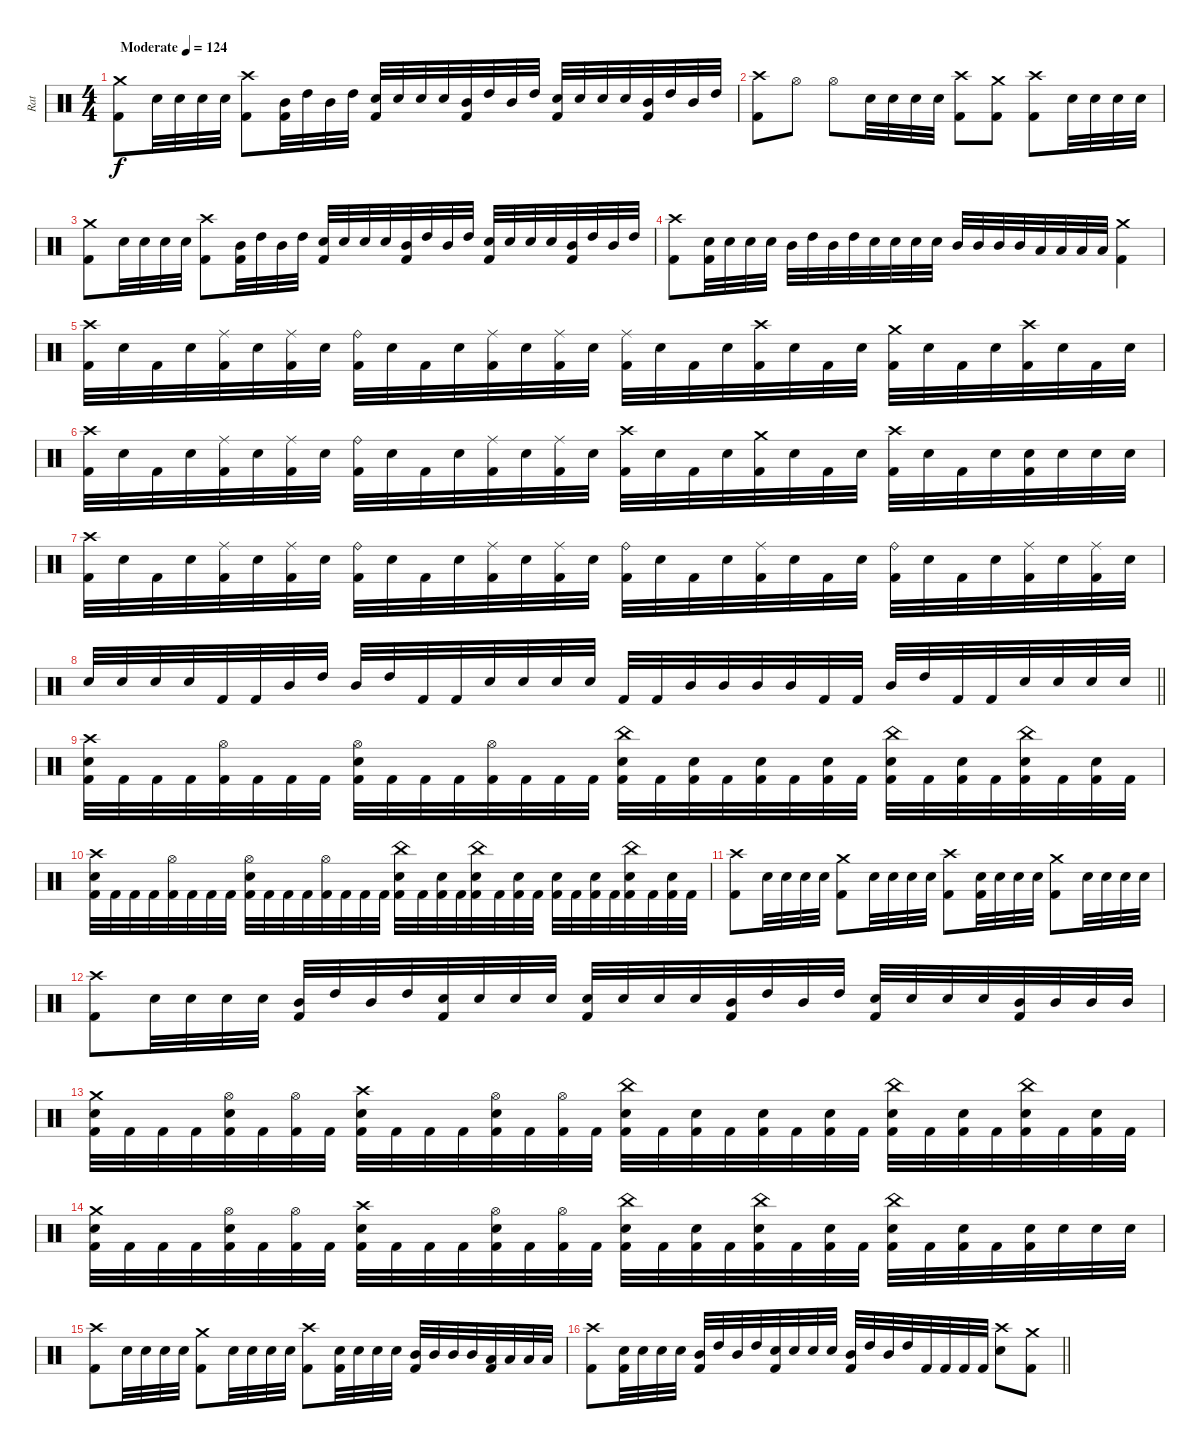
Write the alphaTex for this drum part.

\track ("Rat" "Rat") {instrument percussion}
\staff {score}
\articulation defaults
\ts (4 4)
\tempo (124 "Moderate")
\clef neutral
\ks c
("Crash medium (hit)" "Kick (hit) 2").8{dy f} "Electric Snare (hit)".32 "Electric Snare (hit)".32 "Electric Snare (hit)".32 "Electric Snare (hit)".32 ("Crash high (hit)" "Kick (hit) 2").8 ("Mid Tom (hit)" "Kick (hit) 2").32 "High Tom (hit)".32 "Mid Tom (hit)".32 "High Tom (hit)".32 ("Electric Snare (hit)" "Kick (hit) 2").32 "Electric Snare (hit)".32 "Electric Snare (hit)".32 "Electric Snare (hit)".32 ("Mid Tom (hit)" "Kick (hit) 2").32 "High Tom (hit)".32 "Mid Tom (hit)".32 "High Tom (hit)".32 ("Electric Snare (hit)" "Kick (hit) 2").32 "Electric Snare (hit)".32 "Electric Snare (hit)".32 "Electric Snare (hit)".32 ("Mid Tom (hit)" "Kick (hit) 2").32 "High Tom (hit)".32 "Mid Tom (hit)".32 "High Tom (hit)".32 |
("Crash high (hit)" "Kick (hit) 2").8 "Hi-Hat (open)".8 "Hi-Hat (open)".8 "Electric Snare (hit)".32 "Electric Snare (hit)".32 "Electric Snare (hit)".32 "Electric Snare (hit)".32 ("Crash high (hit)" "Kick (hit) 2").8 ("Crash medium (hit)" "Kick (hit) 2").8 ("Crash high (hit)" "Kick (hit) 2").8 "Electric Snare (hit)".32 "Electric Snare (hit)".32 "Electric Snare (hit)".32 "Electric Snare (hit)".32 |
("Crash medium (hit)" "Kick (hit) 2").8 "Electric Snare (hit)".32 "Electric Snare (hit)".32 "Electric Snare (hit)".32 "Electric Snare (hit)".32 ("Crash high (hit)" "Kick (hit) 2").8 ("Mid Tom (hit)" "Kick (hit) 2").32 "High Tom (hit)".32 "Mid Tom (hit)".32 "High Tom (hit)".32 ("Electric Snare (hit)" "Kick (hit) 2").32 "Electric Snare (hit)".32 "Electric Snare (hit)".32 "Electric Snare (hit)".32 ("Mid Tom (hit)" "Kick (hit) 2").32 "High Tom (hit)".32 "Mid Tom (hit)".32 "High Tom (hit)".32 ("Electric Snare (hit)" "Kick (hit) 2").32 "Electric Snare (hit)".32 "Electric Snare (hit)".32 "Electric Snare (hit)".32 ("Mid Tom (hit)" "Kick (hit) 2").32 "High Tom (hit)".32 "Mid Tom (hit)".32 "High Tom (hit)".32 |
("Crash high (hit)" "Kick (hit) 2").8 ("Electric Snare (hit)" "Kick (hit) 2").32 "Electric Snare (hit)".32 "Electric Snare (hit)".32 "Electric Snare (hit)".32 "Mid Tom (hit)".32 "High Tom (hit)".32 "Mid Tom (hit)".32 "High Tom (hit)".32 "Electric Snare (hit)".32 "Electric Snare (hit)".32 "Electric Snare (hit)".32 "Electric Snare (hit)".32 "Mid Tom (hit)".32 "Mid Tom (hit)".32 "Mid Tom (hit)".32 "Mid Tom (hit)".32 "Low Tom (hit)".32 "Low Tom (hit)".32 "Low Tom (hit)".32 "Low Tom (hit)".32 ("Crash medium (hit)" "Kick (hit) 2").4 |
("Crash high (hit)" "Kick (hit) 2").32 "Electric Snare (hit)".32 "Kick (hit) 2".32 "Electric Snare (hit)".32 ("Ride (middle)" "Kick (hit) 2").32 "Electric Snare (hit)".32 ("Ride (middle)" "Kick (hit) 2").32 "Electric Snare (hit)".32 ("Ride (bell)" "Kick (hit) 2").32 "Electric Snare (hit)".32 "Kick (hit) 2".32 "Electric Snare (hit)".32 ("Ride (middle)" "Kick (hit) 2").32 "Electric Snare (hit)".32 ("Ride (middle)" "Kick (hit) 2").32 "Electric Snare (hit)".32 ("Ride (middle)" "Kick (hit) 2").32 "Electric Snare (hit)".32 "Kick (hit) 2".32 "Electric Snare (hit)".32 ("Crash high (hit)" "Kick (hit) 2").32 "Electric Snare (hit)".32 "Kick (hit) 2".32 "Electric Snare (hit)".32 ("Crash medium (hit)" "Kick (hit) 2").32 "Electric Snare (hit)".32 "Kick (hit) 2".32 "Electric Snare (hit)".32 ("Crash high (hit)" "Kick (hit) 2").32 "Electric Snare (hit)".32 "Kick (hit) 2".32 "Electric Snare (hit)".32 |
("Crash high (hit)" "Kick (hit) 2").32 "Electric Snare (hit)".32 "Kick (hit) 2".32 "Electric Snare (hit)".32 ("Ride (middle)" "Kick (hit) 2").32 "Electric Snare (hit)".32 ("Ride (middle)" "Kick (hit) 2").32 "Electric Snare (hit)".32 ("Ride (bell)" "Kick (hit) 2").32 "Electric Snare (hit)".32 "Kick (hit) 2".32 "Electric Snare (hit)".32 ("Ride (middle)" "Kick (hit) 2").32 "Electric Snare (hit)".32 ("Ride (middle)" "Kick (hit) 2").32 "Electric Snare (hit)".32 ("Crash high (hit)" "Kick (hit) 2").32 "Electric Snare (hit)".32 "Kick (hit) 2".32 "Electric Snare (hit)".32 ("Crash medium (hit)" "Kick (hit) 2").32 "Electric Snare (hit)".32 "Kick (hit) 2".32 "Electric Snare (hit)".32 ("Crash high (hit)" "Kick (hit) 2").32 "Electric Snare (hit)".32 "Kick (hit) 2".32 "Electric Snare (hit)".32 ("Electric Snare (hit)" "Kick (hit) 2").32 "Electric Snare (hit)".32 "Electric Snare (hit)".32 "Electric Snare (hit)".32 |
("Crash high (hit)" "Kick (hit) 2").32 "Electric Snare (hit)".32 "Kick (hit) 2".32 "Electric Snare (hit)".32 ("Ride (middle)" "Kick (hit) 2").32 "Electric Snare (hit)".32 ("Ride (middle)" "Kick (hit) 2").32 "Electric Snare (hit)".32 ("Ride (bell)" "Kick (hit) 2").32 "Electric Snare (hit)".32 "Kick (hit) 2".32 "Electric Snare (hit)".32 ("Ride (middle)" "Kick (hit) 2").32 "Electric Snare (hit)".32 ("Ride (middle)" "Kick (hit) 2").32 "Electric Snare (hit)".32 ("Ride (bell)" "Kick (hit) 2").32 "Electric Snare (hit)".32 "Kick (hit) 2".32 "Electric Snare (hit)".32 ("Ride (middle)" "Kick (hit) 2").32 "Electric Snare (hit)".32 "Kick (hit) 2".32 "Electric Snare (hit)".32 ("Ride (bell)" "Kick (hit) 2").32 "Electric Snare (hit)".32 "Kick (hit) 2".32 "Electric Snare (hit)".32 ("Ride (middle)" "Kick (hit) 2").32 "Electric Snare (hit)".32 ("Ride (middle)" "Kick (hit) 2").32 "Electric Snare (hit)".32 |
\barLineRight lightlight "Electric Snare (hit)".32 "Electric Snare (hit)".32 "Electric Snare (hit)".32 "Electric Snare (hit)".32 "Kick (hit) 2".32 "Kick (hit) 2".32 "Mid Tom (hit)".32 "High Tom (hit)".32 "Mid Tom (hit)".32 "High Tom (hit)".32 "Kick (hit) 2".32 "Kick (hit) 2".32 "Electric Snare (hit)".32 "Electric Snare (hit)".32 "Electric Snare (hit)".32 "Electric Snare (hit)".32 "Kick (hit) 2".32 "Kick (hit) 2".32 "Mid Tom (hit)".32 "Mid Tom (hit)".32 "Mid Tom (hit)".32 "Mid Tom (hit)".32 "Kick (hit) 2".32 "Kick (hit) 2".32 "Mid Tom (hit)".32 "High Tom (hit)".32 "Kick (hit) 2".32 "Kick (hit) 2".32 "Electric Snare (hit)".32 "Electric Snare (hit)".32 "Electric Snare (hit)".32 "Electric Snare (hit)".32
|
("Crash high (hit)" "Electric Snare (hit)" "Kick (hit) 2").32 "Kick (hit) 2".32 "Kick (hit) 2".32 "Kick (hit) 2".32 ("Hi-Hat (open)" "Kick (hit) 2").32 "Kick (hit) 2".32 "Kick (hit) 2".32 "Kick (hit) 2".32 ("Hi-Hat (open)" "Electric Snare (hit)" "Kick (hit) 2").32 "Kick (hit) 2".32 "Kick (hit) 2".32 "Kick (hit) 2".32 ("Hi-Hat (open)" "Kick (hit) 2").32 "Kick (hit) 2".32 "Kick (hit) 2".32 "Kick (hit) 2".32 ("China (hit)" "Electric Snare (hit)" "Kick (hit) 2").32 "Kick (hit) 2".32 ("Electric Snare (hit)" "Kick (hit) 2").32 "Kick (hit) 2".32 ("Electric Snare (hit)" "Kick (hit) 2").32 "Kick (hit) 2".32 ("Electric Snare (hit)" "Kick (hit) 2").32 "Kick (hit) 2".32 ("China (hit)" "Electric Snare (hit)" "Kick (hit) 2").32 "Kick (hit) 2".32 ("Electric Snare (hit)" "Kick (hit) 2").32 "Kick (hit) 2".32 ("China (hit)" "Electric Snare (hit)" "Kick (hit) 2").32 "Kick (hit) 2".32 ("Electric Snare (hit)" "Kick (hit) 2").32 "Kick (hit) 2".32 |
("Crash high (hit)" "Electric Snare (hit)" "Kick (hit) 2").32 "Kick (hit) 2".32 "Kick (hit) 2".32 "Kick (hit) 2".32 ("Hi-Hat (open)" "Kick (hit) 2").32 "Kick (hit) 2".32 "Kick (hit) 2".32 "Kick (hit) 2".32 ("Hi-Hat (open)" "Electric Snare (hit)" "Kick (hit) 2").32 "Kick (hit) 2".32 "Kick (hit) 2".32 "Kick (hit) 2".32 ("Hi-Hat (open)" "Kick (hit) 2").32 "Kick (hit) 2".32 "Kick (hit) 2".32 "Kick (hit) 2".32 ("China (hit)" "Electric Snare (hit)" "Kick (hit) 2").32 "Kick (hit) 2".32 ("Electric Snare (hit)" "Kick (hit) 2").32 "Kick (hit) 2".32 ("China (hit)" "Electric Snare (hit)" "Kick (hit) 2").32 "Kick (hit) 2".32 ("Electric Snare (hit)" "Kick (hit) 2").32 "Kick (hit) 2".32 ("Electric Snare (hit)" "Kick (hit) 2").32 "Kick (hit) 2".32 ("Electric Snare (hit)" "Kick (hit) 2").32 "Kick (hit) 2".32 ("China (hit)" "Electric Snare (hit)" "Kick (hit) 2").32 "Kick (hit) 2".32 ("Electric Snare (hit)" "Kick (hit) 2").32 "Kick (hit) 2".32 |
("Crash high (hit)" "Kick (hit) 2").8 "Electric Snare (hit)".32 "Electric Snare (hit)".32 "Electric Snare (hit)".32 "Electric Snare (hit)".32 ("Crash medium (hit)" "Kick (hit) 2").8 "Electric Snare (hit)".32 "Electric Snare (hit)".32 "Electric Snare (hit)".32 "Electric Snare (hit)".32 ("Crash high (hit)" "Kick (hit) 2").8 ("Electric Snare (hit)" "Kick (hit) 2").32 "Electric Snare (hit)".32 "Electric Snare (hit)".32 "Electric Snare (hit)".32 ("Crash medium (hit)" "Kick (hit) 2").8 "Electric Snare (hit)".32 "Electric Snare (hit)".32 "Electric Snare (hit)".32 "Electric Snare (hit)".32 |
("Crash high (hit)" "Kick (hit) 2").8 "Electric Snare (hit)".32 "Electric Snare (hit)".32 "Electric Snare (hit)".32 "Electric Snare (hit)".32 ("Mid Tom (hit)" "Kick (hit) 2").32 "High Tom (hit)".32 "Mid Tom (hit)".32 "High Tom (hit)".32 ("Electric Snare (hit)" "Kick (hit) 2").32 "Electric Snare (hit)".32 "Electric Snare (hit)".32 "Electric Snare (hit)".32 ("Electric Snare (hit)" "Kick (hit) 2").32 "Electric Snare (hit)".32 "Electric Snare (hit)".32 "Electric Snare (hit)".32 ("Mid Tom (hit)" "Kick (hit) 2").32 "High Tom (hit)".32 "Mid Tom (hit)".32 "High Tom (hit)".32 ("Electric Snare (hit)" "Kick (hit) 2").32 "Electric Snare (hit)".32 "Electric Snare (hit)".32 "Electric Snare (hit)".32 ("Mid Tom (hit)" "Kick (hit) 2").32 "Mid Tom (hit)".32 "Mid Tom (hit)".32 "Mid Tom (hit)".32 |
("Crash medium (hit)" "Electric Snare (hit)" "Kick (hit) 2").32 "Kick (hit) 2".32 "Kick (hit) 2".32 "Kick (hit) 2".32 ("Hi-Hat (open)" "Electric Snare (hit)" "Kick (hit) 2").32 "Kick (hit) 2".32 ("Hi-Hat (open)" "Kick (hit) 2").32 "Kick (hit) 2".32 ("Crash high (hit)" "Electric Snare (hit)" "Kick (hit) 2").32 "Kick (hit) 2".32 "Kick (hit) 2".32 "Kick (hit) 2".32 ("Hi-Hat (open)" "Electric Snare (hit)" "Kick (hit) 2").32 "Kick (hit) 2".32 ("Hi-Hat (open)" "Kick (hit) 2").32 "Kick (hit) 2".32 ("China (hit)" "Electric Snare (hit)" "Kick (hit) 2").32 "Kick (hit) 2".32 ("Electric Snare (hit)" "Kick (hit) 2").32 "Kick (hit) 2".32 ("Electric Snare (hit)" "Kick (hit) 2").32 "Kick (hit) 2".32 ("Electric Snare (hit)" "Kick (hit) 2").32 "Kick (hit) 2".32 ("China (hit)" "Electric Snare (hit)" "Kick (hit) 2").32 "Kick (hit) 2".32 ("Electric Snare (hit)" "Kick (hit) 2").32 "Kick (hit) 2".32 ("China (hit)" "Electric Snare (hit)" "Kick (hit) 2").32 "Kick (hit) 2".32 ("Electric Snare (hit)" "Kick (hit) 2").32 "Kick (hit) 2".32 |
("Crash medium (hit)" "Electric Snare (hit)" "Kick (hit) 2").32 "Kick (hit) 2".32 "Kick (hit) 2".32 "Kick (hit) 2".32 ("Hi-Hat (open)" "Electric Snare (hit)" "Kick (hit) 2").32 "Kick (hit) 2".32 ("Hi-Hat (open)" "Kick (hit) 2").32 "Kick (hit) 2".32 ("Crash high (hit)" "Electric Snare (hit)" "Kick (hit) 2").32 "Kick (hit) 2".32 "Kick (hit) 2".32 "Kick (hit) 2".32 ("Hi-Hat (open)" "Electric Snare (hit)" "Kick (hit) 2").32 "Kick (hit) 2".32 ("Hi-Hat (open)" "Kick (hit) 2").32 "Kick (hit) 2".32 ("China (hit)" "Electric Snare (hit)" "Kick (hit) 2").32 "Kick (hit) 2".32 ("Electric Snare (hit)" "Kick (hit) 2").32 "Kick (hit) 2".32 ("China (hit)" "Electric Snare (hit)" "Kick (hit) 2").32 "Kick (hit) 2".32 ("Electric Snare (hit)" "Kick (hit) 2").32 "Kick (hit) 2".32 ("China (hit)" "Electric Snare (hit)" "Kick (hit) 2").32 "Kick (hit) 2".32 ("Electric Snare (hit)" "Kick (hit) 2").32 "Kick (hit) 2".32 ("Electric Snare (hit)" "Kick (hit) 2").32 "Electric Snare (hit)".32 "Electric Snare (hit)".32 "Electric Snare (hit)".32 |
("Crash high (hit)" "Kick (hit) 2").8 "Electric Snare (hit)".32 "Electric Snare (hit)".32 "Electric Snare (hit)".32 "Electric Snare (hit)".32 ("Crash medium (hit)" "Kick (hit) 2").8 "Electric Snare (hit)".32 "Electric Snare (hit)".32 "Electric Snare (hit)".32 "Electric Snare (hit)".32 ("Crash high (hit)" "Kick (hit) 2").8 ("Electric Snare (hit)" "Kick (hit) 2").32 "Electric Snare (hit)".32 "Electric Snare (hit)".32 "Electric Snare (hit)".32 ("Mid Tom (hit)" "Kick (hit) 2").32 "Mid Tom (hit)".32 "Mid Tom (hit)".32 "Mid Tom (hit)".32 ("Low Tom (hit)" "Kick (hit) 2").32 "Low Tom (hit)".32 "Low Tom (hit)".32 "Low Tom (hit)".32 |
\barLineRight lightlight
("Crash high (hit)" "Kick (hit) 2").8 ("Electric Snare (hit)" "Kick (hit) 2").32 "Electric Snare (hit)".32 "Electric Snare (hit)".32 "Electric Snare (hit)".32 ("Mid Tom (hit)" "Kick (hit) 2").32 "High Tom (hit)".32 "Mid Tom (hit)".32 "High Tom (hit)".32 ("Electric Snare (hit)" "Kick (hit) 2").32 "Electric Snare (hit)".32 "Electric Snare (hit)".32 "Electric Snare (hit)".32 ("Mid Tom (hit)" "Kick (hit) 2").32 "High Tom (hit)".32 "Mid Tom (hit)".32 "High Tom (hit)".32 "Kick (hit) 2".32 "Kick (hit) 2".32 "Kick (hit) 2".32 "Kick (hit) 2".32 ("Crash high (hit)" "Electric Snare (hit)").8 ("Crash medium (hit)" "Kick (hit) 2").8
